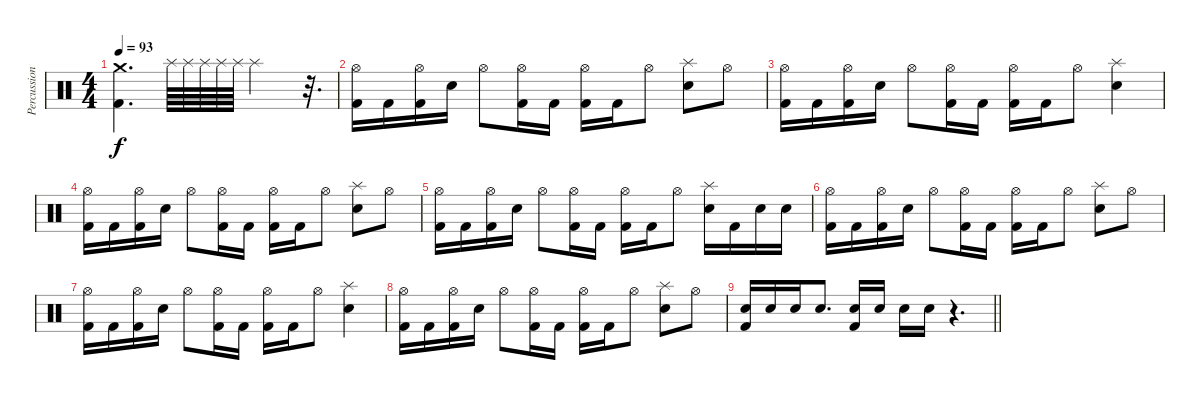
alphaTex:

\track ("Percussion" "Percussion") {instrument percussion}
\staff {score}
\articulation defaults
\ts (4 4)
\tempo 93
\clef neutral
\ks c
("Crash medium (hit)" "Kick (hit) 2").4{d dy f} "Splash (hit)".64 "Splash (hit)".64 "Splash (hit)".64 "Splash (hit)".64 "Splash (hit)".64 "Splash (hit)".2 r.32{d} |
("Hi-Hat (open)" "Kick (hit) 2").16 "Kick (hit) 2".16 ("Hi-Hat (open)" "Kick (hit) 2").16 "Snare (hit) 2".16 "Hi-Hat (open)".8 ("Hi-Hat (open)" "Kick (hit) 2").16 "Kick (hit) 2".16 ("Hi-Hat (open)" "Kick (hit) 2").16 "Kick (hit) 2".16 "Hi-Hat (open)".8 ("Splash (hit)" "Snare (hit) 2").8 "Hi-Hat (open)".8 |
("Hi-Hat (open)" "Kick (hit) 2").16 "Kick (hit) 2".16 ("Hi-Hat (open)" "Kick (hit) 2").16 "Snare (hit) 2".16 "Hi-Hat (open)".8 ("Hi-Hat (open)" "Kick (hit) 2").16 "Kick (hit) 2".16 ("Hi-Hat (open)" "Kick (hit) 2").16 "Kick (hit) 2".16 "Hi-Hat (open)".8 ("Splash (hit)" "Snare (hit) 2").4 |
("Hi-Hat (open)" "Kick (hit) 2").16 "Kick (hit) 2".16 ("Hi-Hat (open)" "Kick (hit) 2").16 "Snare (hit) 2".16 "Hi-Hat (open)".8 ("Hi-Hat (open)" "Kick (hit) 2").16 "Kick (hit) 2".16 ("Hi-Hat (open)" "Kick (hit) 2").16 "Kick (hit) 2".16 "Hi-Hat (open)".8 ("Splash (hit)" "Snare (hit) 2").8 "Hi-Hat (open)".8 |
("Hi-Hat (open)" "Kick (hit) 2").16 "Kick (hit) 2".16 ("Hi-Hat (open)" "Kick (hit) 2").16 "Snare (hit) 2".16 "Hi-Hat (open)".8 ("Hi-Hat (open)" "Kick (hit) 2").16 "Kick (hit) 2".16 ("Hi-Hat (open)" "Kick (hit) 2").16 "Kick (hit) 2".16 "Hi-Hat (open)".8 ("Splash (hit)" "Snare (hit) 2").16 "Kick (hit) 2".16 "Snare (hit) 2".16 "Snare (hit) 2".16 |
("Hi-Hat (open)" "Kick (hit) 2").16 "Kick (hit) 2".16 ("Hi-Hat (open)" "Kick (hit) 2").16 "Snare (hit) 2".16 "Hi-Hat (open)".8 ("Hi-Hat (open)" "Kick (hit) 2").16 "Kick (hit) 2".16 ("Hi-Hat (open)" "Kick (hit) 2").16 "Kick (hit) 2".16 "Hi-Hat (open)".8 ("Splash (hit)" "Snare (hit) 2").8 "Hi-Hat (open)".8 |
("Hi-Hat (open)" "Kick (hit) 2").16 "Kick (hit) 2".16 ("Hi-Hat (open)" "Kick (hit) 2").16 "Snare (hit) 2".16 "Hi-Hat (open)".8 ("Hi-Hat (open)" "Kick (hit) 2").16 "Kick (hit) 2".16 ("Hi-Hat (open)" "Kick (hit) 2").16 "Kick (hit) 2".16 "Hi-Hat (open)".8 ("Splash (hit)" "Snare (hit) 2").4 |
("Hi-Hat (open)" "Kick (hit) 2").16 "Kick (hit) 2".16 ("Hi-Hat (open)" "Kick (hit) 2").16 "Snare (hit) 2".16 "Hi-Hat (open)".8 ("Hi-Hat (open)" "Kick (hit) 2").16 "Kick (hit) 2".16 ("Hi-Hat (open)" "Kick (hit) 2").16 "Kick (hit) 2".16 "Hi-Hat (open)".8 ("Splash (hit)" "Snare (hit) 2").8 "Hi-Hat (open)".8 |
\barLineRight lightlight
("Snare (hit) 2" "Kick (hit) 2").16 "Snare (hit) 2".16 "Snare (hit) 2".16 "Snare (hit) 2".8{d} ("Snare (hit) 2" "Kick (hit) 2").16 "Snare (hit) 2".16 "Snare (hit) 2".16 "Snare (hit) 2".16 r.4{d}
